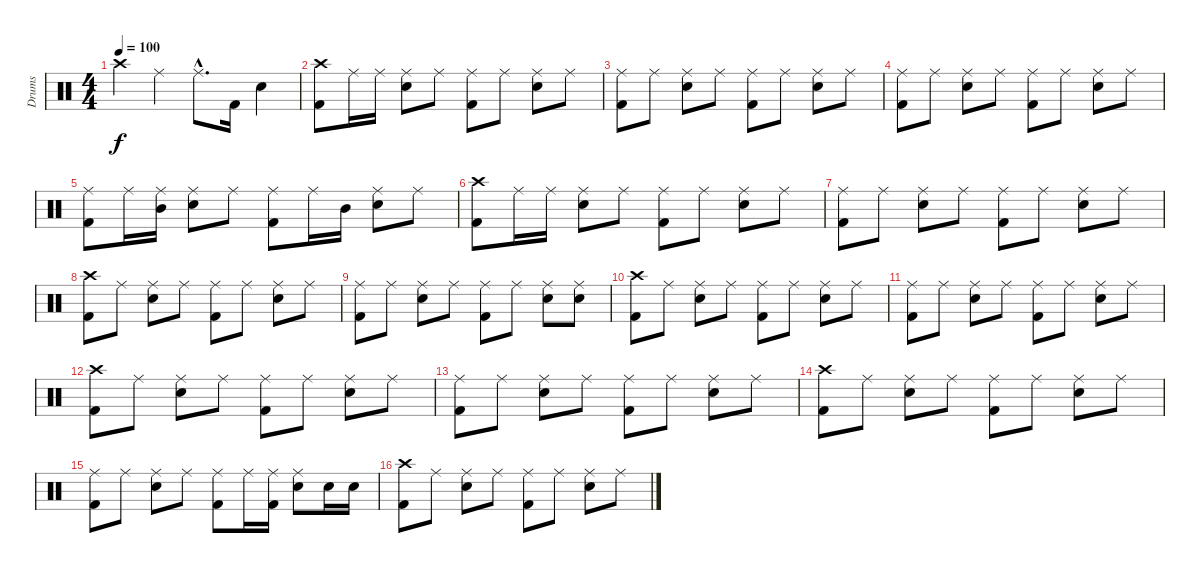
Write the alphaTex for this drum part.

\track ("Drums" "Drums") {instrument percussion}
\staff {score}
\articulation defaults
\ts (4 4)
\tempo 100
\clef neutral
\ks c "Crash high (hit)".4{dy f} "Ride (middle)".4 "Ride (middle)"{hac}.8{d} "Kick (hit) 2".16 "Snare (hit) 2".4
|
("Crash high (hit)" "Kick (hit) 2").8 "Ride (middle)".16 "Ride (middle)".16 ("Ride (middle)" "Snare (hit) 2").8 "Ride (middle)".8 ("Ride (middle)" "Kick (hit) 2").8 "Ride (middle)".8 ("Ride (middle)" "Snare (hit) 2").8 "Ride (middle)".8 |
("Ride (middle)" "Kick (hit) 2").8 "Ride (middle)".8 ("Ride (middle)" "Snare (hit) 2").8 "Ride (middle)".8 ("Ride (middle)" "Kick (hit) 2").8 "Ride (middle)".8 ("Ride (middle)" "Snare (hit) 2").8 "Ride (middle)".8 |
("Ride (middle)" "Kick (hit) 2").8 "Ride (middle)".8 ("Ride (middle)" "Snare (hit) 2").8 "Ride (middle)".8 ("Ride (middle)" "Kick (hit) 2").8 "Ride (middle)".8 ("Ride (middle)" "Snare (hit) 2").8 "Ride (middle)".8 |
("Ride (middle)" "Kick (hit) 2").8 "Ride (middle)".16 ("Ride (middle)" "Mid Tom (hit)").16 ("Ride (middle)" "Snare (hit) 2").8 "Ride (middle)".8 ("Ride (middle)" "Kick (hit) 2").8 "Ride (middle)".16 "Mid Tom (hit)".16 ("Ride (middle)" "Snare (hit) 2").8 "Ride (middle)".8 |
("Crash high (hit)" "Kick (hit) 2").8 "Ride (middle)".16 "Ride (middle)".16 ("Ride (middle)" "Snare (hit) 2").8 "Ride (middle)".8 ("Ride (middle)" "Kick (hit) 2").8 "Ride (middle)".8 ("Ride (middle)" "Snare (hit) 2").8 "Ride (middle)".8 |
("Ride (middle)" "Kick (hit) 2").8 "Ride (middle)".8 ("Ride (middle)" "Snare (hit) 2").8 "Ride (middle)".8 ("Ride (middle)" "Kick (hit) 2").8 "Ride (middle)".8 ("Ride (middle)" "Snare (hit) 2").8 "Ride (middle)".8 |
("Crash high (hit)" "Kick (hit) 2").8 "Ride (middle)".8 ("Ride (middle)" "Snare (hit) 2").8 "Ride (middle)".8 ("Ride (middle)" "Kick (hit) 2").8 "Ride (middle)".8 ("Ride (middle)" "Snare (hit) 2").8 "Ride (middle)".8 |
("Ride (middle)" "Kick (hit) 2").8 "Ride (middle)".8 ("Ride (middle)" "Snare (hit) 2").8 "Ride (middle)".8 ("Ride (middle)" "Kick (hit) 2").8 "Ride (middle)".8 ("Ride (middle)" "Snare (hit) 2").8 ("Ride (middle)" "Snare (hit) 2").8 |
("Crash high (hit)" "Kick (hit) 2").8 "Ride (middle)".8 ("Ride (middle)" "Snare (hit) 2").8 "Ride (middle)".8 ("Ride (middle)" "Kick (hit) 2").8 "Ride (middle)".8 ("Ride (middle)" "Snare (hit) 2").8 "Ride (middle)".8 |
("Ride (middle)" "Kick (hit) 2").8 "Ride (middle)".8 ("Ride (middle)" "Snare (hit) 2").8 "Ride (middle)".8 ("Ride (middle)" "Kick (hit) 2").8 "Ride (middle)".8 ("Ride (middle)" "Snare (hit) 2").8 "Ride (middle)".8 |
("Crash high (hit)" "Kick (hit) 2").8 "Ride (middle)".8 ("Ride (middle)" "Snare (hit) 2").8 "Ride (middle)".8 ("Ride (middle)" "Kick (hit) 2").8 "Ride (middle)".8 ("Ride (middle)" "Snare (hit) 2").8 "Ride (middle)".8 |
("Ride (middle)" "Kick (hit) 2").8 "Ride (middle)".8 ("Ride (middle)" "Snare (hit) 2").8 "Ride (middle)".8 ("Ride (middle)" "Kick (hit) 2").8 "Ride (middle)".8 ("Ride (middle)" "Snare (hit) 2").8 "Ride (middle)".8 |
("Crash high (hit)" "Kick (hit) 2").8 "Ride (middle)".8 ("Ride (middle)" "Snare (hit) 2").8 "Ride (middle)".8 ("Ride (middle)" "Kick (hit) 2").8 "Ride (middle)".8 ("Ride (middle)" "Snare (hit) 2").8 "Ride (middle)".8 |
("Ride (middle)" "Kick (hit) 2").8 "Ride (middle)".8 ("Ride (middle)" "Snare (hit) 2").8 "Ride (middle)".8 ("Ride (middle)" "Kick (hit) 2").8 "Ride (middle)".16 ("Ride (middle)" "Kick (hit) 2").16 ("Ride (middle)" "Snare (hit) 2").8 "Snare (hit) 2".16 "Snare (hit) 2".16 |
("Crash high (hit)" "Kick (hit) 2").8 "Ride (middle)".8 ("Ride (middle)" "Snare (hit) 2").8 "Ride (middle)".8 ("Ride (middle)" "Kick (hit) 2").8 "Ride (middle)".8 ("Ride (middle)" "Snare (hit) 2").8 "Ride (middle)".8
